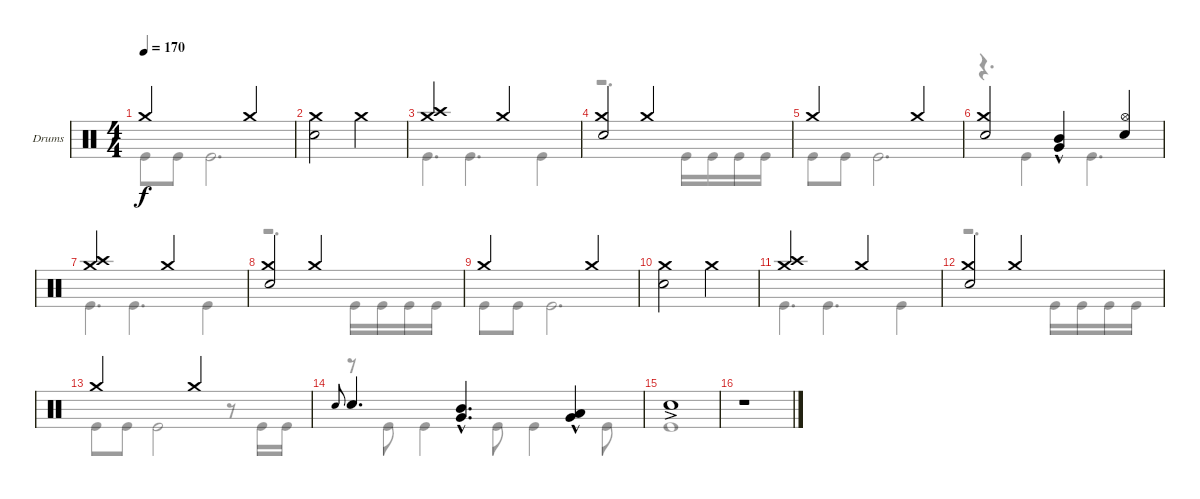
\defaultSystemsLayout 4
\bracketExtendMode groupsimilarinstruments
\firstSystemTrackNameOrientation horizontal
\otherSystemsTrackNameOrientation horizontal
\track ("Drumkit" "Drums") {instrument percussion}
\staff {score}
\articulation defaults
\voice
\ts (4 4)
\tempo 170
\clef neutral
\ks c "Crash medium (hit)".2{dy f} "Crash medium (hit)".2
|
("Crash medium (hit)" "Snare (hit) 2").2 "Crash medium (hit)".2 |
("Crash high (hit)" "Crash medium (hit)").2 "Crash medium (hit)".2 |
("Crash medium (hit)" "Snare (hit) 2").2 "Crash medium (hit)".2 |
"Crash medium (hit)".2 "Crash medium (hit)".2 |
("Crash medium (hit)" "Snare (hit) 2").2 ("Mid Tom (hit)"{hac} "Very Low Tom (hit)"{hac}).4 ("Snare (hit) 2" "Hi-Hat (open)").4 |
("Crash high (hit)" "Crash medium (hit)").2 "Crash medium (hit)".2 |
("Crash medium (hit)" "Snare (hit) 2").2 "Crash medium (hit)".2 |
"Crash medium (hit)".2 "Crash medium (hit)".2 |
("Crash medium (hit)" "Snare (hit) 2").2 "Crash medium (hit)".2 |
("Crash high (hit)" "Crash medium (hit)").2 "Crash medium (hit)".2 |
("Crash medium (hit)" "Snare (hit) 2").2 "Crash medium (hit)".2 |
"Crash medium (hit)".2 "Crash medium (hit)".2 |
"Snare (hit) 2".8{gr onbeat} "Snare (hit) 2".4{d} ("Mid Tom (hit)"{hac} "Very Low Tom (hit)"{hac}).4{d} ("Low Tom (hit)"{hac} "Very Low Tom (hit)"{hac}).4 |
"Snare (hit) 2"{ac}.1 |
r.1
\voice
\clef neutral
\ottava regular
\simile none
\ks c "Kick (hit)".8{dy f} "Kick (hit)".8 "Kick (hit)".2{d}
|
|
"Kick (hit)".4{d} "Kick (hit)".4{d} "Kick (hit)".4 |
r.2{d} "Kick (hit)".16 "Kick (hit)".16 "Kick (hit)".16 "Kick (hit)".16 |
"Kick (hit)".8 "Kick (hit)".8 "Kick (hit)".2{d} |
r.4{d} "Kick (hit)".4 "Kick (hit)".4{d} |
"Kick (hit)".4{d} "Kick (hit)".4{d} "Kick (hit)".4 |
r.2{d} "Kick (hit)".16 "Kick (hit)".16 "Kick (hit)".16 "Kick (hit)".16 |
"Kick (hit)".8 "Kick (hit)".8 "Kick (hit)".2{d} |
|
"Kick (hit)".4{d} "Kick (hit)".4{d} "Kick (hit)".4 |
r.2{d} "Kick (hit)".16 "Kick (hit)".16 "Kick (hit)".16 "Kick (hit)".16 |
"Kick (hit)".8 "Kick (hit)".8 "Kick (hit)".2 r.8 "Kick (hit)".16 "Kick (hit)".16 |
r.8 "Kick (hit)".8 "Kick (hit)".4 "Kick (hit)".8 "Kick (hit)".4 "Kick (hit)".8 |
"Kick (hit)".1 |
